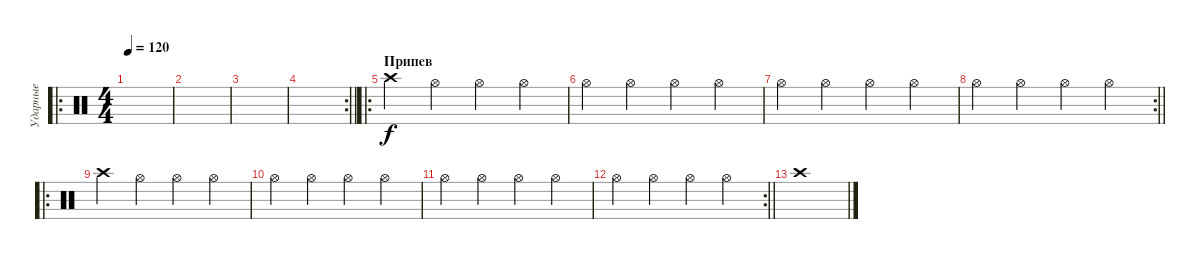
\track ("Ударные" "Ударные") {instrument percussion}
\staff {score}
\articulation defaults
\ro
\ts (4 4)
\tempo 120
\clef neutral
\ks c
|
|
|
\rc 2
\barLineRight lightlight
|
\ro
\section ("" "Припев")
"Crash high (hit)".4 "Hi-Hat (open)".4 "Hi-Hat (open)".4 "Hi-Hat (open)".4 |
"Hi-Hat (open)".4 "Hi-Hat (open)".4 "Hi-Hat (open)".4 "Hi-Hat (open)".4 |
"Hi-Hat (open)".4 "Hi-Hat (open)".4 "Hi-Hat (open)".4 "Hi-Hat (open)".4 |
\rc 2
\barLineRight lightlight "Hi-Hat (open)".4 "Hi-Hat (open)".4 "Hi-Hat (open)".4 "Hi-Hat (open)".4
|
\ro "Crash high (hit)".4 "Hi-Hat (open)".4 "Hi-Hat (open)".4 "Hi-Hat (open)".4
|
"Hi-Hat (open)".4 "Hi-Hat (open)".4 "Hi-Hat (open)".4 "Hi-Hat (open)".4 |
"Hi-Hat (open)".4 "Hi-Hat (open)".4 "Hi-Hat (open)".4 "Hi-Hat (open)".4 |
\rc 2
\barLineRight lightlight "Hi-Hat (open)".4 "Hi-Hat (open)".4 "Hi-Hat (open)".4 "Hi-Hat (open)".4
|
"Crash high (hit)".1
